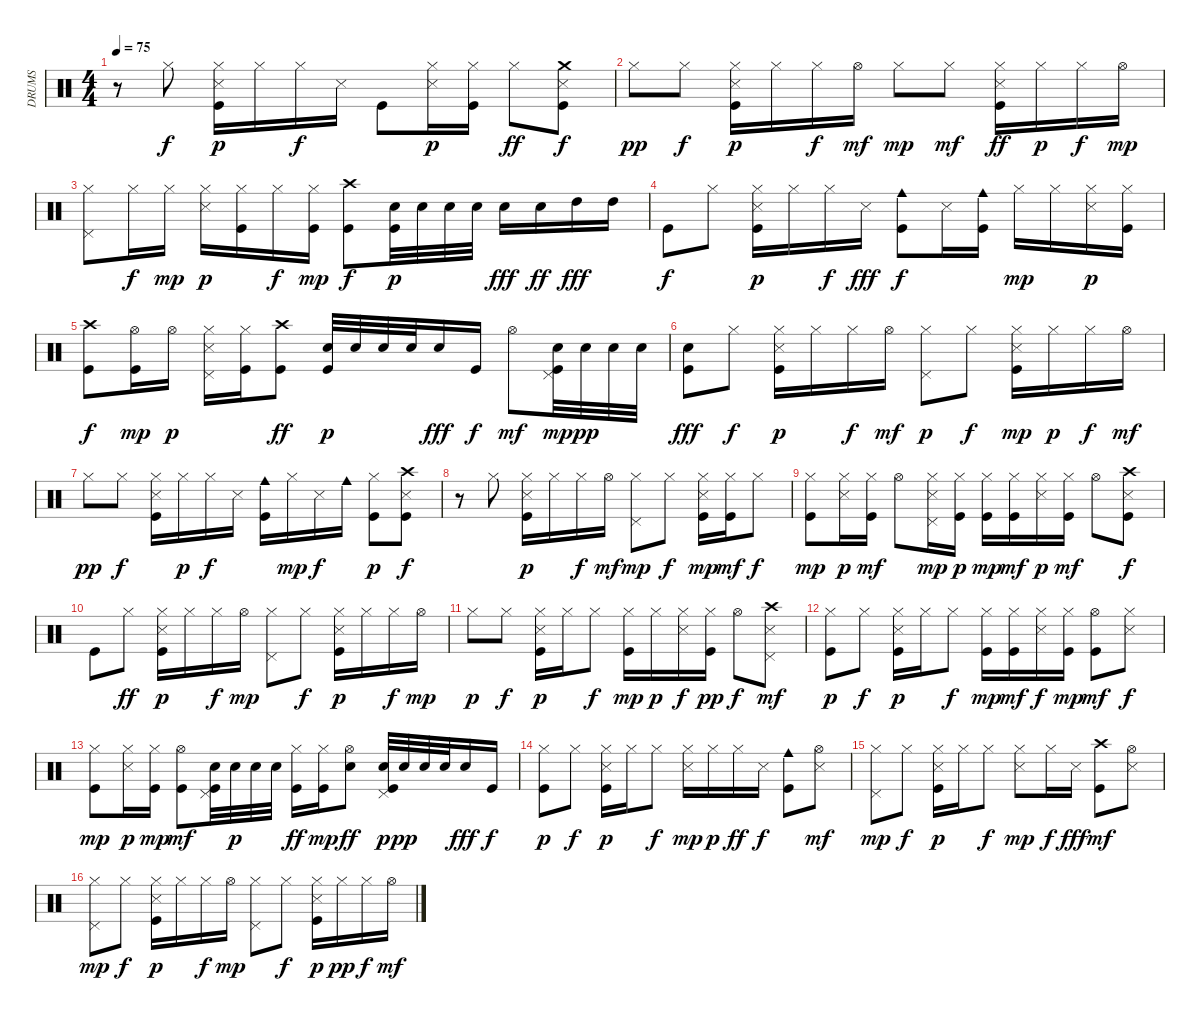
\track ("DRUMS" "DRUMS") {instrument percussion}
\staff {score}
\articulation defaults
\ts (4 4)
\tempo 75
\clef neutral
\ks c
r.8{dy f} "Hi-Hat (closed)".8 ("Hi-Hat (closed)" "Snare (side stick) 3" "Kick (hit)").16{dy p} "Hi-Hat (closed)".16 "Hi-Hat (closed)".16{dy f} "Snare (side stick) 3".16 "Kick (hit)".8 ("Hi-Hat (closed)" "Snare (side stick) 3").16{dy p} ("Hi-Hat (closed)" "Kick (hit)").16 "Hi-Hat (closed)".8{dy ff} ("Crash medium (hit)" "Snare (side stick) 3" "Kick (hit)").8{dy f} |
"Hi-Hat (closed)".8{dy pp} "Hi-Hat (closed)".8{dy f} ("Hi-Hat (closed)" "Snare (side stick) 3" "Kick (hit)").16{dy p} "Hi-Hat (closed)".16 "Hi-Hat (closed)".16{dy f} "Hi-Hat (open)".16{dy mf} "Hi-Hat (closed)".8{dy mp} "Hi-Hat (closed)".8{dy mf} ("Hi-Hat (closed)" "Snare (side stick) 3" "Kick (hit)").16{dy ff} "Hi-Hat (closed)".16{dy p} "Hi-Hat (closed)".16{dy f} "Hi-Hat (open)".16{dy mp} |
("Hi-Hat (closed)" "Pedal Hi-Hat (hit)").8 "Hi-Hat (closed)".16{dy f} "Hi-Hat (closed)".16{dy mp} ("Hi-Hat (closed)" "Snare (side stick) 3").16{dy p} ("Hi-Hat (closed)" "Kick (hit)").16 "Hi-Hat (closed)".16{dy f} ("Hi-Hat (closed)" "Kick (hit)").16{dy mp} ("Crash high (hit)" "Kick (hit)").8{dy f} ("Electric Snare (hit)" "Kick (hit)").32{dy p} "Electric Snare (hit)".32 "Electric Snare (hit)".32 "Electric Snare (hit)".32 "Electric Snare (hit)".16{dy fff} "Electric Snare (hit)".16{dy ff} "High Tom (hit)".16{dy fff} "High Tom (hit)".16 |
"Kick (hit)".8{dy f} "Hi-Hat (closed)".8 ("Hi-Hat (closed)" "Snare (side stick) 3" "Kick (hit)").16{dy p} "Hi-Hat (closed)".16 "Hi-Hat (closed)".16{dy f} "Snare (side stick) 3".16{dy fff} ("Cowbell medium (hit)" "Kick (hit)").8{dy f} "Snare (side stick) 3".16 ("Cowbell medium (hit)" "Kick (hit)").16 "Hi-Hat (closed)".16{dy mp} "Hi-Hat (closed)".16 ("Hi-Hat (closed)" "Snare (side stick) 3").16{dy p} ("Hi-Hat (closed)" "Kick (hit)").16 |
("Crash high (hit)" "Kick (hit)").8{dy f} ("Hi-Hat (open)" "Kick (hit)").16{dy mp} "Hi-Hat (open)".16{dy p} ("Hi-Hat (closed)" "Snare (side stick) 3" "Pedal Hi-Hat (hit)").16 ("Hi-Hat (closed)" "Kick (hit)").16 ("Crash high (hit)" "Kick (hit)").8{dy ff} ("Electric Snare (hit)" "Kick (hit)").32{dy p} "Electric Snare (hit)".32 "Electric Snare (hit)".32 "Electric Snare (hit)".32 "Electric Snare (hit)".16{dy fff} "Kick (hit)".16{dy f} "Hi-Hat (open)".8{dy mf} ("Electric Snare (hit)" "Pedal Hi-Hat (hit)" "Kick (hit)").32{dy mp} "Electric Snare (hit)".32{dy pp} "Electric Snare (hit)".32 "Electric Snare (hit)".32 |
("Electric Snare (hit)" "Kick (hit)").8{dy fff} "Hi-Hat (closed)".8{dy f} ("Hi-Hat (closed)" "Snare (side stick) 3" "Kick (hit)").16{dy p} "Hi-Hat (closed)".16 "Hi-Hat (closed)".16{dy f} "Hi-Hat (open)".16{dy mf} ("Hi-Hat (closed)" "Pedal Hi-Hat (hit)").8{dy p} "Hi-Hat (closed)".8{dy f} ("Hi-Hat (closed)" "Snare (side stick) 3" "Kick (hit)").16{dy mp} "Hi-Hat (closed)".16{dy p} "Hi-Hat (closed)".16{dy f} "Hi-Hat (open)".16{dy mf} |
"Hi-Hat (closed)".8{dy pp} "Hi-Hat (closed)".8{dy f} ("Hi-Hat (closed)" "Snare (side stick) 3" "Kick (hit)").16 "Hi-Hat (closed)".16{dy p} "Hi-Hat (closed)".16{dy f} "Snare (side stick) 3".16 ("Cowbell medium (hit)" "Kick (hit)").16 "Hi-Hat (closed)".16{dy mp} "Snare (side stick) 3".16{dy f} "Cowbell medium (hit)".16 ("Hi-Hat (closed)" "Kick (hit)").8{dy p} ("Crash high (hit)" "Snare (side stick) 3" "Kick (hit)").8{dy f} |
r.8 "Hi-Hat (closed)".8 ("Hi-Hat (closed)" "Snare (side stick) 3" "Kick (hit)").16{dy p} "Hi-Hat (closed)".16 "Hi-Hat (closed)".16{dy f} "Hi-Hat (open)".16{dy mf} ("Hi-Hat (closed)" "Pedal Hi-Hat (hit)").8{dy mp} "Hi-Hat (closed)".8{dy f} ("Hi-Hat (closed)" "Snare (side stick) 3" "Kick (hit)").16{dy mp} ("Hi-Hat (closed)" "Kick (hit)").16{dy mf} "Hi-Hat (closed)".8{dy f} |
("Hi-Hat (closed)" "Kick (hit)").8{dy mp} ("Hi-Hat (closed)" "Snare (side stick) 3").16{dy p} ("Hi-Hat (closed)" "Kick (hit)").16{dy mf} "Hi-Hat (open)".8 ("Hi-Hat (closed)" "Snare (side stick) 3" "Pedal Hi-Hat (hit)").16{dy mp} ("Hi-Hat (closed)" "Kick (hit)").16{dy p} ("Hi-Hat (closed)" "Kick (hit)").16{dy mp} ("Hi-Hat (closed)" "Kick (hit)").16{dy mf} ("Hi-Hat (closed)" "Snare (side stick) 3").16{dy p} ("Hi-Hat (closed)" "Kick (hit)").16{dy mf} "Hi-Hat (open)".8 ("Crash high (hit)" "Snare (side stick) 3" "Kick (hit)").8{dy f} |
"Kick (hit)".8 "Hi-Hat (closed)".8{dy ff} ("Hi-Hat (closed)" "Snare (side stick) 3" "Kick (hit)").16{dy p} "Hi-Hat (closed)".16 "Hi-Hat (closed)".16{dy f} "Hi-Hat (open)".16{dy mp} ("Hi-Hat (closed)" "Pedal Hi-Hat (hit)").8 "Hi-Hat (closed)".8{dy f} ("Hi-Hat (closed)" "Snare (side stick) 3" "Kick (hit)").16{dy p} "Hi-Hat (closed)".16 "Hi-Hat (closed)".16{dy f} "Hi-Hat (open)".16{dy mp} |
"Hi-Hat (closed)".8{dy p} "Hi-Hat (closed)".8{dy f} ("Hi-Hat (closed)" "Snare (side stick) 3" "Kick (hit)").16{dy p} "Hi-Hat (closed)".16 "Hi-Hat (closed)".8{dy f} ("Hi-Hat (closed)" "Kick (hit)").16{dy mp} "Hi-Hat (closed)".16{dy p} ("Hi-Hat (closed)" "Snare (side stick) 3").16{dy f} ("Hi-Hat (closed)" "Kick (hit)").16{dy pp} "Hi-Hat (open)".8{dy f} ("Crash high (hit)" "Snare (side stick) 3" "Pedal Hi-Hat (hit)").8{dy mf} |
("Hi-Hat (closed)" "Kick (hit)").8{dy p} "Hi-Hat (closed)".8{dy f} ("Hi-Hat (closed)" "Snare (side stick) 3" "Kick (hit)").16{dy p} "Hi-Hat (closed)".16 "Hi-Hat (closed)".8{dy f} ("Hi-Hat (closed)" "Kick (hit)").16{dy mp} ("Hi-Hat (closed)" "Kick (hit)").16{dy mf} ("Hi-Hat (closed)" "Snare (side stick) 3").16{dy f} ("Hi-Hat (closed)" "Kick (hit)").16{dy mp} ("Hi-Hat (open)" "Kick (hit)").8{dy mf} ("Hi-Hat (closed)" "Snare (side stick) 3").8{dy f} |
("Hi-Hat (closed)" "Kick (hit)").8{dy mp} ("Hi-Hat (closed)" "Snare (side stick) 3").16{dy p} ("Hi-Hat (closed)" "Kick (hit)").16{dy mp} ("Hi-Hat (open)" "Kick (hit)").8{dy mf} ("Electric Snare (hit)" "Pedal Hi-Hat (hit)" "Kick (hit)").32 "Electric Snare (hit)".32{dy p} "Electric Snare (hit)".32 "Electric Snare (hit)".32 ("Hi-Hat (closed)" "Kick (hit)").16{dy ff} ("Hi-Hat (closed)" "Kick (hit)").16{dy mp} ("Hi-Hat (open)" "Electric Snare (hit)").8{dy ff} ("Electric Snare (hit)" "Pedal Hi-Hat (hit)" "Kick (hit)").32{dy p} "Electric Snare (hit)".32{dy pp} "Electric Snare (hit)".32 "Electric Snare (hit)".32 "Electric Snare (hit)".16{dy fff} "Kick (hit)".16{dy f} |
("Hi-Hat (closed)" "Kick (hit)").8{dy p} "Hi-Hat (closed)".8{dy f} ("Hi-Hat (closed)" "Snare (side stick) 3" "Kick (hit)").16{dy p} "Hi-Hat (closed)".16 "Hi-Hat (closed)".8{dy f} ("Hi-Hat (closed)" "Snare (side stick) 3").16{dy mp} "Hi-Hat (closed)".16{dy p} "Hi-Hat (closed)".16{dy ff} "Snare (side stick) 3".16{dy f} ("Cowbell medium (hit)" "Kick (hit)").8 ("Hi-Hat (open)" "Snare (side stick) 3").8{dy mf} |
("Hi-Hat (closed)" "Pedal Hi-Hat (hit)").8{dy mp} "Hi-Hat (closed)".8{dy f} ("Hi-Hat (closed)" "Snare (side stick) 3" "Kick (hit)").16{dy p} "Hi-Hat (closed)".16 "Hi-Hat (closed)".8{dy f} ("Hi-Hat (closed)" "Snare (side stick) 3").8{dy mp} "Hi-Hat (closed)".16{dy f} "Snare (side stick) 3".16{dy fff} ("Crash high (hit)" "Kick (hit)").8{dy mf} ("Hi-Hat (open)" "Snare (side stick) 3").8 |
("Hi-Hat (closed)" "Pedal Hi-Hat (hit)").8{dy mp} "Hi-Hat (closed)".8{dy f} ("Hi-Hat (closed)" "Snare (side stick) 3" "Kick (hit)").16{dy p} "Hi-Hat (closed)".16 "Hi-Hat (closed)".16{dy f} "Hi-Hat (open)".16{dy mp} ("Hi-Hat (closed)" "Pedal Hi-Hat (hit)").8 "Hi-Hat (closed)".8{dy f} ("Hi-Hat (closed)" "Snare (side stick) 3" "Kick (hit)").16{dy p} "Hi-Hat (closed)".16{dy pp} "Hi-Hat (closed)".16{dy f} "Hi-Hat (open)".16{dy mf}
